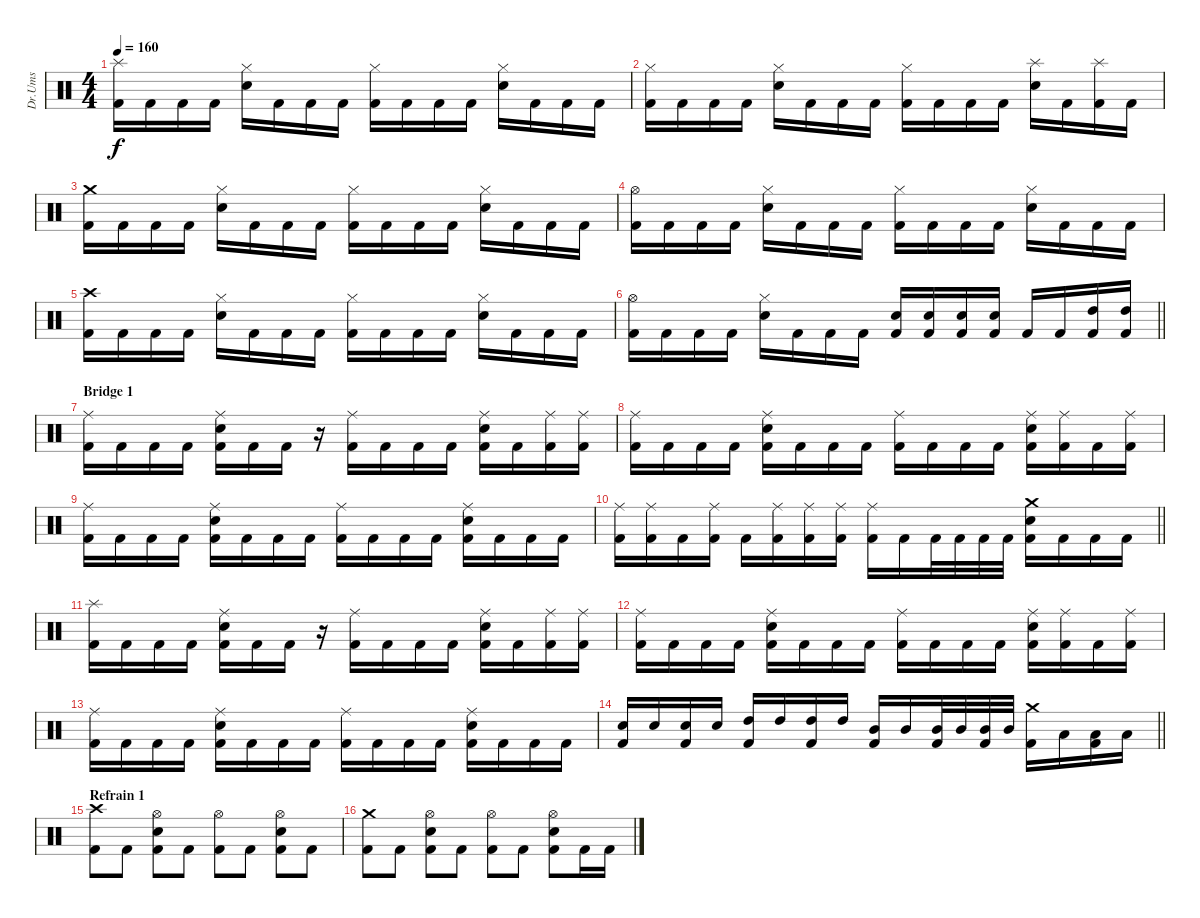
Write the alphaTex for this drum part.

\track ("Dr.Ums" "Dr.Ums") {instrument percussion}
\staff {score}
\articulation defaults
\ts (4 4)
\tempo 160
\clef neutral
\ks c
("Kick (hit) 2" "Splash (hit)").16{dy f} "Kick (hit) 2".16 "Kick (hit) 2".16 "Kick (hit) 2".16 ("Snare (hit) 2" "Hi-Hat (closed)").16 "Kick (hit) 2".16 "Kick (hit) 2".16 "Kick (hit) 2".16 ("Kick (hit) 2" "Hi-Hat (closed)").16 "Kick (hit) 2".16 "Kick (hit) 2".16 "Kick (hit) 2".16 ("Snare (hit) 2" "Hi-Hat (closed)").16 "Kick (hit) 2".16 "Kick (hit) 2".16 "Kick (hit) 2".16 |
("Kick (hit) 2" "Hi-Hat (closed)").16 "Kick (hit) 2".16 "Kick (hit) 2".16 "Kick (hit) 2".16 ("Snare (hit) 2" "Hi-Hat (closed)").16 "Kick (hit) 2".16 "Kick (hit) 2".16 "Kick (hit) 2".16 ("Kick (hit) 2" "Hi-Hat (closed)").16 "Kick (hit) 2".16 "Kick (hit) 2".16 "Kick (hit) 2".16 ("Snare (hit) 2" "Splash (hit)").16 "Kick (hit) 2".16 ("Kick (hit) 2" "Splash (hit)").16 "Kick (hit) 2".16 |
("Kick (hit) 2" "Crash medium (hit)").16 "Kick (hit) 2".16 "Kick (hit) 2".16 "Kick (hit) 2".16 ("Snare (hit) 2" "Hi-Hat (closed)").16 "Kick (hit) 2".16 "Kick (hit) 2".16 "Kick (hit) 2".16 ("Kick (hit) 2" "Hi-Hat (closed)").16 "Kick (hit) 2".16 "Kick (hit) 2".16 "Kick (hit) 2".16 ("Snare (hit) 2" "Hi-Hat (closed)").16 "Kick (hit) 2".16 "Kick (hit) 2".16 "Kick (hit) 2".16 |
("Kick (hit) 2" "Hi-Hat (open)").16 "Kick (hit) 2".16 "Kick (hit) 2".16 "Kick (hit) 2".16 ("Snare (hit) 2" "Hi-Hat (closed)").16 "Kick (hit) 2".16 "Kick (hit) 2".16 "Kick (hit) 2".16 ("Kick (hit) 2" "Hi-Hat (closed)").16 "Kick (hit) 2".16 "Kick (hit) 2".16 "Kick (hit) 2".16 ("Snare (hit) 2" "Hi-Hat (closed)").16 "Kick (hit) 2".16 "Kick (hit) 2".16 "Kick (hit) 2".16 |
("Kick (hit) 2" "Crash high (hit)").16 "Kick (hit) 2".16 "Kick (hit) 2".16 "Kick (hit) 2".16 ("Snare (hit) 2" "Hi-Hat (closed)").16 "Kick (hit) 2".16 "Kick (hit) 2".16 "Kick (hit) 2".16 ("Kick (hit) 2" "Hi-Hat (closed)").16 "Kick (hit) 2".16 "Kick (hit) 2".16 "Kick (hit) 2".16 ("Snare (hit) 2" "Hi-Hat (closed)").16 "Kick (hit) 2".16 "Kick (hit) 2".16 "Kick (hit) 2".16 |
\barLineRight lightlight
("Kick (hit) 2" "Hi-Hat (open)").16 "Kick (hit) 2".16 "Kick (hit) 2".16 "Kick (hit) 2".16 ("Snare (hit) 2" "Hi-Hat (closed)").16 "Kick (hit) 2".16 "Kick (hit) 2".16 "Kick (hit) 2".16 ("Snare (hit) 2" "Kick (hit) 2").16 ("Snare (hit) 2" "Kick (hit) 2").16 ("Snare (hit) 2" "Kick (hit) 2").16 ("Snare (hit) 2" "Kick (hit) 2").16 "Kick (hit) 2".16 "Kick (hit) 2".16 ("High Tom (hit)" "Kick (hit) 2").16 ("High Tom (hit)" "Kick (hit) 2").16 |
\section ("" "Bridge 1")
("Kick (hit) 2" "Ride (middle)").16 "Kick (hit) 2".16 "Kick (hit) 2".16 "Kick (hit) 2".16 ("Kick (hit) 2" "Ride (middle)" "Snare (hit) 2").16 "Kick (hit) 2".16 "Kick (hit) 2".16 r.16 ("Kick (hit) 2" "Ride (middle)").16 "Kick (hit) 2".16 "Kick (hit) 2".16 "Kick (hit) 2".16 ("Kick (hit) 2" "Ride (middle)" "Snare (hit) 2").16 "Kick (hit) 2".16 ("Kick (hit) 2" "Ride (middle)").16 ("Kick (hit) 2" "Ride (middle)").16 |
("Kick (hit) 2" "Ride (middle)").16 "Kick (hit) 2".16 "Kick (hit) 2".16 "Kick (hit) 2".16 ("Kick (hit) 2" "Ride (middle)" "Snare (hit) 2").16 "Kick (hit) 2".16 "Kick (hit) 2".16 "Kick (hit) 2".16 ("Kick (hit) 2" "Ride (middle)").16 "Kick (hit) 2".16 "Kick (hit) 2".16 "Kick (hit) 2".16 ("Kick (hit) 2" "Ride (middle)" "Snare (hit) 2").16 ("Kick (hit) 2" "Ride (middle)").16 "Kick (hit) 2".16 ("Kick (hit) 2" "Ride (middle)").16 |
("Kick (hit) 2" "Ride (middle)").16 "Kick (hit) 2".16 "Kick (hit) 2".16 "Kick (hit) 2".16 ("Kick (hit) 2" "Ride (middle)" "Snare (hit) 2").16 "Kick (hit) 2".16 "Kick (hit) 2".16 "Kick (hit) 2".16 ("Kick (hit) 2" "Ride (middle)").16 "Kick (hit) 2".16 "Kick (hit) 2".16 "Kick (hit) 2".16 ("Kick (hit) 2" "Ride (middle)" "Snare (hit) 2").16 "Kick (hit) 2".16 "Kick (hit) 2".16 "Kick (hit) 2".16 |
\barLineRight lightlight
("Kick (hit) 2" "Ride (middle)").16 ("Kick (hit) 2" "Ride (middle)").16 "Kick (hit) 2".16 ("Kick (hit) 2" "Ride (middle)").16 "Kick (hit) 2".16 ("Kick (hit) 2" "Ride (middle)").16 ("Kick (hit) 2" "Ride (middle)").16 ("Kick (hit) 2" "Ride (middle)").16 ("Kick (hit) 2" "Ride (middle)").16 "Kick (hit) 2".16 "Kick (hit) 2".32 "Kick (hit) 2".32 "Kick (hit) 2".32 "Kick (hit) 2".32 ("Kick (hit) 2" "Crash medium (hit)" "Snare (hit) 2").16 "Kick (hit) 2".16 "Kick (hit) 2".16 "Kick (hit) 2".16 |
("Kick (hit) 2" "Splash (hit)").16 "Kick (hit) 2".16 "Kick (hit) 2".16 "Kick (hit) 2".16 ("Kick (hit) 2" "Ride (middle)" "Snare (hit) 2").16 "Kick (hit) 2".16 "Kick (hit) 2".16 r.16 ("Kick (hit) 2" "Ride (middle)").16 "Kick (hit) 2".16 "Kick (hit) 2".16 "Kick (hit) 2".16 ("Kick (hit) 2" "Ride (middle)" "Snare (hit) 2").16 "Kick (hit) 2".16 ("Kick (hit) 2" "Ride (middle)").16 ("Kick (hit) 2" "Ride (middle)").16 |
("Kick (hit) 2" "Ride (middle)").16 "Kick (hit) 2".16 "Kick (hit) 2".16 "Kick (hit) 2".16 ("Kick (hit) 2" "Ride (middle)" "Snare (hit) 2").16 "Kick (hit) 2".16 "Kick (hit) 2".16 "Kick (hit) 2".16 ("Kick (hit) 2" "Ride (middle)").16 "Kick (hit) 2".16 "Kick (hit) 2".16 "Kick (hit) 2".16 ("Kick (hit) 2" "Ride (middle)" "Snare (hit) 2").16 ("Kick (hit) 2" "Ride (middle)").16 "Kick (hit) 2".16 ("Kick (hit) 2" "Ride (middle)").16 |
("Kick (hit) 2" "Ride (middle)").16 "Kick (hit) 2".16 "Kick (hit) 2".16 "Kick (hit) 2".16 ("Kick (hit) 2" "Ride (middle)" "Snare (hit) 2").16 "Kick (hit) 2".16 "Kick (hit) 2".16 "Kick (hit) 2".16 ("Kick (hit) 2" "Ride (middle)").16 "Kick (hit) 2".16 "Kick (hit) 2".16 "Kick (hit) 2".16 ("Kick (hit) 2" "Ride (middle)" "Snare (hit) 2").16 "Kick (hit) 2".16 "Kick (hit) 2".16 "Kick (hit) 2".16 |
\barLineRight lightlight
("Snare (hit) 2" "Kick (hit) 2").16 "Snare (hit) 2".16 ("Snare (hit) 2" "Kick (hit) 2").16 "Snare (hit) 2".16 ("High Tom (hit)" "Kick (hit) 2").16 "High Tom (hit)".16 ("High Tom (hit)" "Kick (hit) 2").16 "High Tom (hit)".16 ("Mid Tom (hit)" "Kick (hit) 2").16 "Mid Tom (hit)".16 ("Mid Tom (hit)" "Kick (hit) 2").32 "Mid Tom (hit)".32 ("Mid Tom (hit)" "Kick (hit) 2").32 "Mid Tom (hit)".32 ("Crash medium (hit)" "Kick (hit) 2").16 "Low Tom (hit)".16 ("Low Tom (hit)" "Kick (hit) 2").16 "Low Tom (hit)".16 |
\section ("" "Refrain 1")
("Crash high (hit)" "Kick (hit) 2").8 "Kick (hit) 2".8 ("Snare (hit) 2" "Kick (hit) 2" "Hi-Hat (open)").8 "Kick (hit) 2".8 ("Kick (hit) 2" "Hi-Hat (open)").8 "Kick (hit) 2".8 ("Kick (hit) 2" "Snare (hit) 2" "Hi-Hat (open)").8 "Kick (hit) 2".8 |
("Crash medium (hit)" "Kick (hit) 2").8 "Kick (hit) 2".8 ("Snare (hit) 2" "Kick (hit) 2" "Hi-Hat (open)").8 "Kick (hit) 2".8 ("Kick (hit) 2" "Hi-Hat (open)").8 "Kick (hit) 2".8 ("Kick (hit) 2" "Snare (hit) 2" "Hi-Hat (open)").8 "Kick (hit) 2".16 "Kick (hit) 2".16
